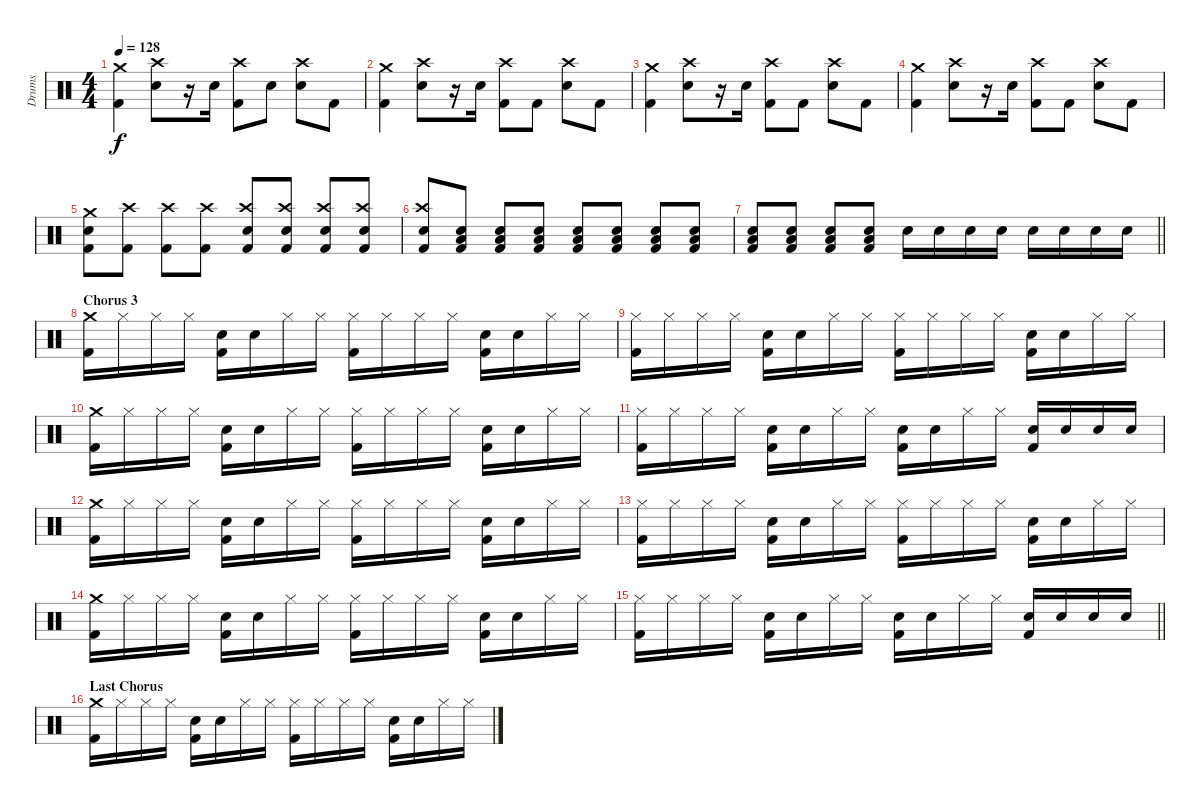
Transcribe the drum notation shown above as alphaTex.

\track ("Drums" "Drums") {instrument percussion}
\staff {score}
\articulation defaults
\ts (4 4)
\tempo 128
\clef neutral
\ks c
("Crash medium (hit)" "Kick (hit) 2").4{dy f} ("Crash high (hit)" "Electric Snare (hit)").8 r.16 "Electric Snare (hit)".16 ("Crash high (hit)" "Kick (hit) 2").8 "Electric Snare (hit)".8 ("Crash high (hit)" "Electric Snare (hit)").8 "Kick (hit) 2".8 |
("Crash medium (hit)" "Kick (hit) 2").4 ("Crash high (hit)" "Electric Snare (hit)").8 r.16 "Electric Snare (hit)".16 ("Crash high (hit)" "Kick (hit) 2").8 "Kick (hit) 2".8 ("Crash high (hit)" "Electric Snare (hit)").8 "Kick (hit) 2".8 |
("Crash medium (hit)" "Kick (hit) 2").4 ("Crash high (hit)" "Electric Snare (hit)").8 r.16 "Electric Snare (hit)".16 ("Crash high (hit)" "Kick (hit) 2").8 "Kick (hit) 2".8 ("Crash high (hit)" "Electric Snare (hit)").8 "Kick (hit) 2".8 |
("Crash medium (hit)" "Kick (hit) 2").4 ("Crash high (hit)" "Electric Snare (hit)").8 r.16 "Electric Snare (hit)".16 ("Crash high (hit)" "Kick (hit) 2").8 "Kick (hit) 2".8 ("Crash high (hit)" "Electric Snare (hit)").8 "Kick (hit) 2".8 |
("Crash medium (hit)" "Electric Snare (hit)" "Kick (hit) 2").8 ("Crash high (hit)" "Kick (hit) 2").8 ("Crash high (hit)" "Kick (hit) 2").8 ("Crash high (hit)" "Kick (hit) 2").8 ("Crash high (hit)" "Electric Snare (hit)" "Kick (hit) 2").8 ("Crash high (hit)" "Electric Snare (hit)" "Kick (hit) 2").8 ("Crash high (hit)" "Electric Snare (hit)" "Kick (hit) 2").8 ("Crash high (hit)" "Electric Snare (hit)" "Kick (hit) 2").8 |
("Crash high (hit)" "Electric Snare (hit)" "Kick (hit) 2").8 ("Low Floor Tom (hit)" "Electric Snare (hit)" "Kick (hit) 2").8{volume 8} ("Low Floor Tom (hit)" "Electric Snare (hit)" "Kick (hit) 2").8{volume 13} ("Low Floor Tom (hit)" "Electric Snare (hit)" "Kick (hit) 2").8 ("Low Floor Tom (hit)" "Electric Snare (hit)" "Kick (hit) 2").8 ("Low Floor Tom (hit)" "Electric Snare (hit)" "Kick (hit) 2").8 ("Low Floor Tom (hit)" "Electric Snare (hit)" "Kick (hit) 2").8 ("Low Floor Tom (hit)" "Electric Snare (hit)" "Kick (hit) 2").8 |
\barLineRight lightlight
("Low Floor Tom (hit)" "Electric Snare (hit)" "Kick (hit) 2").8 ("Low Floor Tom (hit)" "Electric Snare (hit)" "Kick (hit) 2").8 ("Low Floor Tom (hit)" "Electric Snare (hit)" "Kick (hit) 2").8 ("Low Floor Tom (hit)" "Electric Snare (hit)" "Kick (hit) 2").8 "Electric Snare (hit)".16 "Electric Snare (hit)".16 "Electric Snare (hit)".16 "Electric Snare (hit)".16 "Electric Snare (hit)".16 "Electric Snare (hit)".16 "Electric Snare (hit)".16 "Electric Snare (hit)".16 |
\section ("" "Chorus 3")
("Crash medium (hit)" "Kick (hit) 2").16 "Hi-Hat (closed)".16 "Hi-Hat (closed)".16 "Hi-Hat (closed)".16 ("Electric Snare (hit)" "Kick (hit) 2").16 "Electric Snare (hit)".16 "Hi-Hat (closed)".16 "Hi-Hat (closed)".16 ("Hi-Hat (closed)" "Kick (hit) 2").16 "Hi-Hat (closed)".16 "Hi-Hat (closed)".16 "Hi-Hat (closed)".16 ("Electric Snare (hit)" "Kick (hit) 2").16 "Electric Snare (hit)".16 "Hi-Hat (closed)".16 "Hi-Hat (closed)".16 |
("Hi-Hat (closed)" "Kick (hit) 2").16 "Hi-Hat (closed)".16 "Hi-Hat (closed)".16 "Hi-Hat (closed)".16 ("Electric Snare (hit)" "Kick (hit) 2").16 "Electric Snare (hit)".16 "Hi-Hat (closed)".16 "Hi-Hat (closed)".16 ("Hi-Hat (closed)" "Kick (hit) 2").16 "Hi-Hat (closed)".16 "Hi-Hat (closed)".16 "Hi-Hat (closed)".16 ("Electric Snare (hit)" "Kick (hit) 2").16 "Electric Snare (hit)".16 "Hi-Hat (closed)".16 "Hi-Hat (closed)".16 |
("Crash medium (hit)" "Kick (hit) 2").16 "Hi-Hat (closed)".16 "Hi-Hat (closed)".16 "Hi-Hat (closed)".16 ("Electric Snare (hit)" "Kick (hit) 2").16 "Electric Snare (hit)".16 "Hi-Hat (closed)".16 "Hi-Hat (closed)".16 ("Hi-Hat (closed)" "Kick (hit) 2").16 "Hi-Hat (closed)".16 "Hi-Hat (closed)".16 "Hi-Hat (closed)".16 ("Electric Snare (hit)" "Kick (hit) 2").16 "Electric Snare (hit)".16 "Hi-Hat (closed)".16 "Hi-Hat (closed)".16 |
("Hi-Hat (closed)" "Kick (hit) 2").16 "Hi-Hat (closed)".16 "Hi-Hat (closed)".16 "Hi-Hat (closed)".16 ("Electric Snare (hit)" "Kick (hit) 2").16 "Electric Snare (hit)".16 "Hi-Hat (closed)".16 "Hi-Hat (closed)".16 ("Electric Snare (hit)" "Kick (hit) 2").16 "Electric Snare (hit)".16 "Hi-Hat (closed)".16 "Hi-Hat (closed)".16 ("Electric Snare (hit)" "Kick (hit) 2").16 "Electric Snare (hit)".16 "Electric Snare (hit)".16 "Electric Snare (hit)".16 |
("Crash medium (hit)" "Kick (hit) 2").16 "Hi-Hat (closed)".16 "Hi-Hat (closed)".16 "Hi-Hat (closed)".16 ("Electric Snare (hit)" "Kick (hit) 2").16 "Electric Snare (hit)".16 "Hi-Hat (closed)".16 "Hi-Hat (closed)".16 ("Hi-Hat (closed)" "Kick (hit) 2").16 "Hi-Hat (closed)".16 "Hi-Hat (closed)".16 "Hi-Hat (closed)".16 ("Electric Snare (hit)" "Kick (hit) 2").16 "Electric Snare (hit)".16 "Hi-Hat (closed)".16 "Hi-Hat (closed)".16 |
("Hi-Hat (closed)" "Kick (hit) 2").16 "Hi-Hat (closed)".16 "Hi-Hat (closed)".16 "Hi-Hat (closed)".16 ("Electric Snare (hit)" "Kick (hit) 2").16 "Electric Snare (hit)".16 "Hi-Hat (closed)".16 "Hi-Hat (closed)".16 ("Hi-Hat (closed)" "Kick (hit) 2").16 "Hi-Hat (closed)".16 "Hi-Hat (closed)".16 "Hi-Hat (closed)".16 ("Electric Snare (hit)" "Kick (hit) 2").16 "Electric Snare (hit)".16 "Hi-Hat (closed)".16 "Hi-Hat (closed)".16 |
("Crash medium (hit)" "Kick (hit) 2").16 "Hi-Hat (closed)".16 "Hi-Hat (closed)".16 "Hi-Hat (closed)".16 ("Electric Snare (hit)" "Kick (hit) 2").16 "Electric Snare (hit)".16 "Hi-Hat (closed)".16 "Hi-Hat (closed)".16 ("Hi-Hat (closed)" "Kick (hit) 2").16 "Hi-Hat (closed)".16 "Hi-Hat (closed)".16 "Hi-Hat (closed)".16 ("Electric Snare (hit)" "Kick (hit) 2").16 "Electric Snare (hit)".16 "Hi-Hat (closed)".16 "Hi-Hat (closed)".16 |
\barLineRight lightlight
("Hi-Hat (closed)" "Kick (hit) 2").16 "Hi-Hat (closed)".16 "Hi-Hat (closed)".16 "Hi-Hat (closed)".16 ("Electric Snare (hit)" "Kick (hit) 2").16 "Electric Snare (hit)".16 "Hi-Hat (closed)".16 "Hi-Hat (closed)".16 ("Electric Snare (hit)" "Kick (hit) 2").16 "Electric Snare (hit)".16 "Hi-Hat (closed)".16 "Hi-Hat (closed)".16 ("Electric Snare (hit)" "Kick (hit) 2").16 "Electric Snare (hit)".16 "Electric Snare (hit)".16 "Electric Snare (hit)".16 |
\section ("" "Last Chorus")
("Crash medium (hit)" "Kick (hit) 2").16 "Hi-Hat (closed)".16 "Hi-Hat (closed)".16 "Hi-Hat (closed)".16 ("Electric Snare (hit)" "Kick (hit) 2").16 "Electric Snare (hit)".16 "Hi-Hat (closed)".16 "Hi-Hat (closed)".16 ("Hi-Hat (closed)" "Kick (hit) 2").16 "Hi-Hat (closed)".16 "Hi-Hat (closed)".16 "Hi-Hat (closed)".16 ("Electric Snare (hit)" "Kick (hit) 2").16 "Electric Snare (hit)".16 "Hi-Hat (closed)".16 "Hi-Hat (closed)".16
